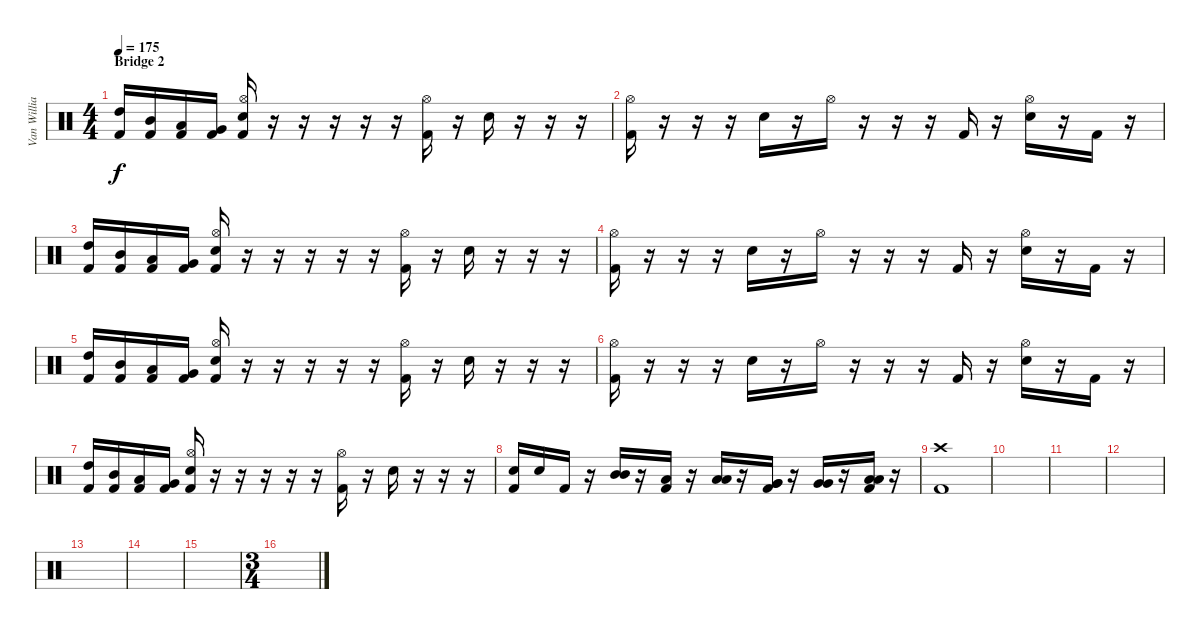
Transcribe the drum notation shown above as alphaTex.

\track ("Van Williams" "Van Willia") {instrument percussion}
\staff {score}
\articulation defaults
\ts (4 4)
\section ("" "Bridge 2")
\tempo 175
\clef neutral
\ks c
("Kick (hit) 2" "High Tom (hit)").16{dy f} ("Kick (hit) 2" "Mid Tom (hit)").16 ("Kick (hit) 2" "Low Tom (hit)").16 ("Kick (hit) 2" "Very Low Tom (hit)").16 ("Hi-Hat (open)" "Kick (hit) 2" "Electric Snare (hit)").16 r.16 r.16 r.16 r.16 r.16 ("Hi-Hat (open)" "Kick (hit) 2").16 r.16 "Electric Snare (hit)".16 r.16 r.16 r.16 |
("Hi-Hat (open)" "Kick (hit) 2").16 r.16 r.16 r.16 "Electric Snare (hit)".16 r.16 "Hi-Hat (open)".16 r.16 r.16 r.16 "Kick (hit) 2".16 r.16 ("Hi-Hat (open)" "Electric Snare (hit)").16 r.16 "Kick (hit) 2".16 r.16 |
("Kick (hit) 2" "High Tom (hit)").16 ("Kick (hit) 2" "Mid Tom (hit)").16 ("Kick (hit) 2" "Low Tom (hit)").16 ("Kick (hit) 2" "Very Low Tom (hit)").16 ("Hi-Hat (open)" "Kick (hit) 2" "Electric Snare (hit)").16 r.16 r.16 r.16 r.16 r.16 ("Hi-Hat (open)" "Kick (hit) 2").16 r.16 "Electric Snare (hit)".16 r.16 r.16 r.16 |
("Hi-Hat (open)" "Kick (hit) 2").16 r.16 r.16 r.16 "Electric Snare (hit)".16 r.16 "Hi-Hat (open)".16 r.16 r.16 r.16 "Kick (hit) 2".16 r.16 ("Hi-Hat (open)" "Electric Snare (hit)").16 r.16 "Kick (hit) 2".16 r.16 |
("Kick (hit) 2" "High Tom (hit)").16 ("Kick (hit) 2" "Mid Tom (hit)").16 ("Kick (hit) 2" "Low Tom (hit)").16 ("Kick (hit) 2" "Very Low Tom (hit)").16 ("Hi-Hat (open)" "Kick (hit) 2" "Electric Snare (hit)").16 r.16 r.16 r.16 r.16 r.16 ("Hi-Hat (open)" "Kick (hit) 2").16 r.16 "Electric Snare (hit)".16 r.16 r.16 r.16 |
("Hi-Hat (open)" "Kick (hit) 2").16 r.16 r.16 r.16 "Electric Snare (hit)".16 r.16 "Hi-Hat (open)".16 r.16 r.16 r.16 "Kick (hit) 2".16 r.16 ("Hi-Hat (open)" "Electric Snare (hit)").16 r.16 "Kick (hit) 2".16 r.16 |
("Kick (hit) 2" "High Tom (hit)").16 ("Kick (hit) 2" "Mid Tom (hit)").16 ("Kick (hit) 2" "Low Tom (hit)").16 ("Kick (hit) 2" "Very Low Tom (hit)").16 ("Hi-Hat (open)" "Kick (hit) 2" "Electric Snare (hit)").16 r.16 r.16 r.16 r.16 r.16 ("Hi-Hat (open)" "Kick (hit) 2").16 r.16 "Electric Snare (hit)".16 r.16 r.16 r.16 |
("Kick (hit) 2" "Electric Snare (hit)").16 "Electric Snare (hit)".16 "Kick (hit) 2".16 r.16 ("Mid Tom (hit)" "Mid Tom (hit)").16 r.16 ("Kick (hit) 2" "Low Tom (hit)").16 r.16 ("Low Tom (hit)" "Low Tom (hit)").16 r.16 ("Kick (hit) 2" "Very Low Tom (hit)" "Very Low Tom (hit)").16 r.16 ("Very Low Tom (hit)" "Very Low Tom (hit)").16 r.16 ("Kick (hit) 2" "Low Floor Tom (hit)" "Low Floor Tom (hit)").16 r.16 |
("Crash high (hit)" "Kick (hit) 2").1 |
|
|
|
|
|
|
\ts (3 4)
